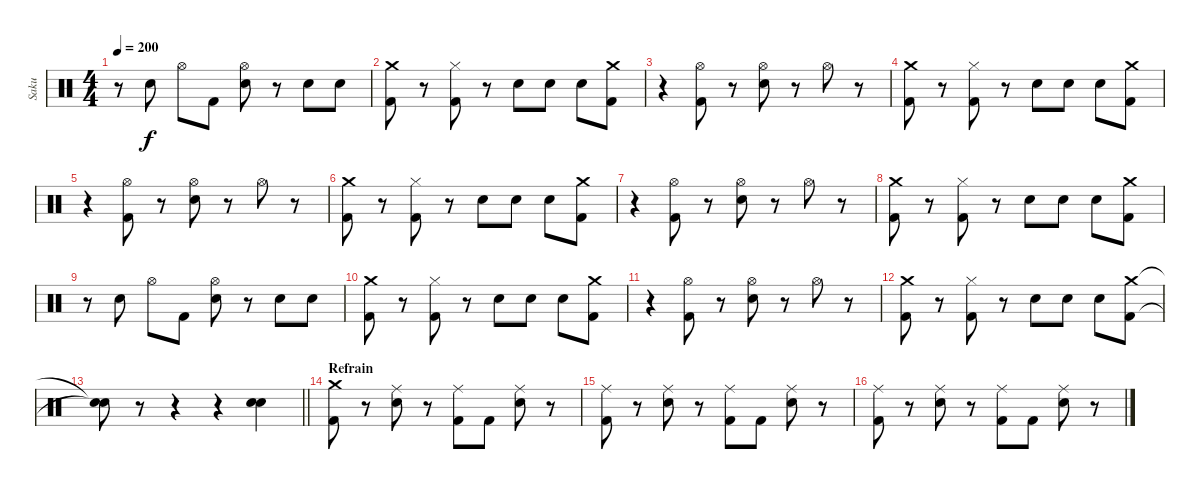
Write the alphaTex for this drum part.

\track ("Saku" "Saku") {instrument percussion}
\staff {score}
\articulation defaults
\ts (4 4)
\tempo 200
\clef neutral
\ks c
r.8{dy f} "Electric Snare (hit)".8 "Hi-Hat (open)".8 "Kick (hit) 2".8 ("Hi-Hat (open)" "Electric Snare (hit)").8 r.8 "Electric Snare (hit)".8 "Electric Snare (hit)".8 |
("Crash medium (hit)" "Kick (hit) 2").8 r.8 ("Hi-Hat (closed)" "Kick (hit) 2").8 r.8 "Electric Snare (hit)".8 "Electric Snare (hit)".8 "Electric Snare (hit)".8 ("Crash medium (hit)" "Kick (hit) 2").8 |
r.4 ("Hi-Hat (open)" "Kick (hit) 2").8 r.8 ("Hi-Hat (open)" "Electric Snare (hit)").8 r.8 "Hi-Hat (open)".8 r.8 |
("Crash medium (hit)" "Kick (hit) 2").8 r.8 ("Hi-Hat (closed)" "Kick (hit) 2").8 r.8 "Electric Snare (hit)".8 "Electric Snare (hit)".8 "Electric Snare (hit)".8 ("Crash medium (hit)" "Kick (hit) 2").8 |
r.4 ("Hi-Hat (open)" "Kick (hit) 2").8 r.8 ("Hi-Hat (open)" "Electric Snare (hit)").8 r.8 "Hi-Hat (open)".8 r.8 |
("Crash medium (hit)" "Kick (hit) 2").8 r.8 ("Hi-Hat (closed)" "Kick (hit) 2").8 r.8 "Electric Snare (hit)".8 "Electric Snare (hit)".8 "Electric Snare (hit)".8 ("Crash medium (hit)" "Kick (hit) 2").8 |
r.4 ("Hi-Hat (open)" "Kick (hit) 2").8 r.8 ("Hi-Hat (open)" "Electric Snare (hit)").8 r.8 "Hi-Hat (open)".8 r.8 |
("Crash medium (hit)" "Kick (hit) 2").8 r.8 ("Hi-Hat (closed)" "Kick (hit) 2").8 r.8 "Electric Snare (hit)".8 "Electric Snare (hit)".8 "Electric Snare (hit)".8 ("Crash medium (hit)" "Kick (hit) 2").8 |
r.8 "Electric Snare (hit)".8 "Hi-Hat (open)".8 "Kick (hit) 2".8 ("Hi-Hat (open)" "Electric Snare (hit)").8 r.8 "Electric Snare (hit)".8 "Electric Snare (hit)".8 |
("Crash medium (hit)" "Kick (hit) 2").8 r.8 ("Hi-Hat (closed)" "Kick (hit) 2").8 r.8 "Electric Snare (hit)".8 "Electric Snare (hit)".8 "Electric Snare (hit)".8 ("Crash medium (hit)" "Kick (hit) 2").8 |
r.4 ("Hi-Hat (open)" "Kick (hit) 2").8 r.8 ("Hi-Hat (open)" "Electric Snare (hit)").8 r.8 "Hi-Hat (open)".8 r.8 |
("Crash medium (hit)" "Kick (hit) 2").8 r.8 ("Hi-Hat (closed)" "Kick (hit) 2").8 r.8 "Electric Snare (hit)".8 "Electric Snare (hit)".8 "Electric Snare (hit)".8 ("Crash medium (hit)" "Kick (hit) 2").8 |
\barLineRight lightlight
("Snare (hit)"{t} "Snare (hit)"{t}).8 r.8 r.4 r.4 ("Electric Snare (hit)" "Electric Snare (hit)").4{bu 120} |
\section ("" "Refrain")
("Crash medium (hit)" "Kick (hit) 2").8 r.8 ("Ride (middle)" "Electric Snare (hit)").8 r.8 ("Ride (middle)" "Kick (hit) 2").8 "Kick (hit) 2".8 ("Ride (middle)" "Electric Snare (hit)").8 r.8 |
("Ride (middle)" "Kick (hit) 2").8 r.8 ("Ride (middle)" "Electric Snare (hit)").8 r.8 ("Ride (middle)" "Kick (hit) 2").8 "Kick (hit) 2".8 ("Ride (middle)" "Electric Snare (hit)").8 r.8 |
("Ride (middle)" "Kick (hit) 2").8 r.8 ("Ride (middle)" "Electric Snare (hit)").8 r.8 ("Ride (middle)" "Kick (hit) 2").8 "Kick (hit) 2".8 ("Ride (middle)" "Electric Snare (hit)").8 r.8
